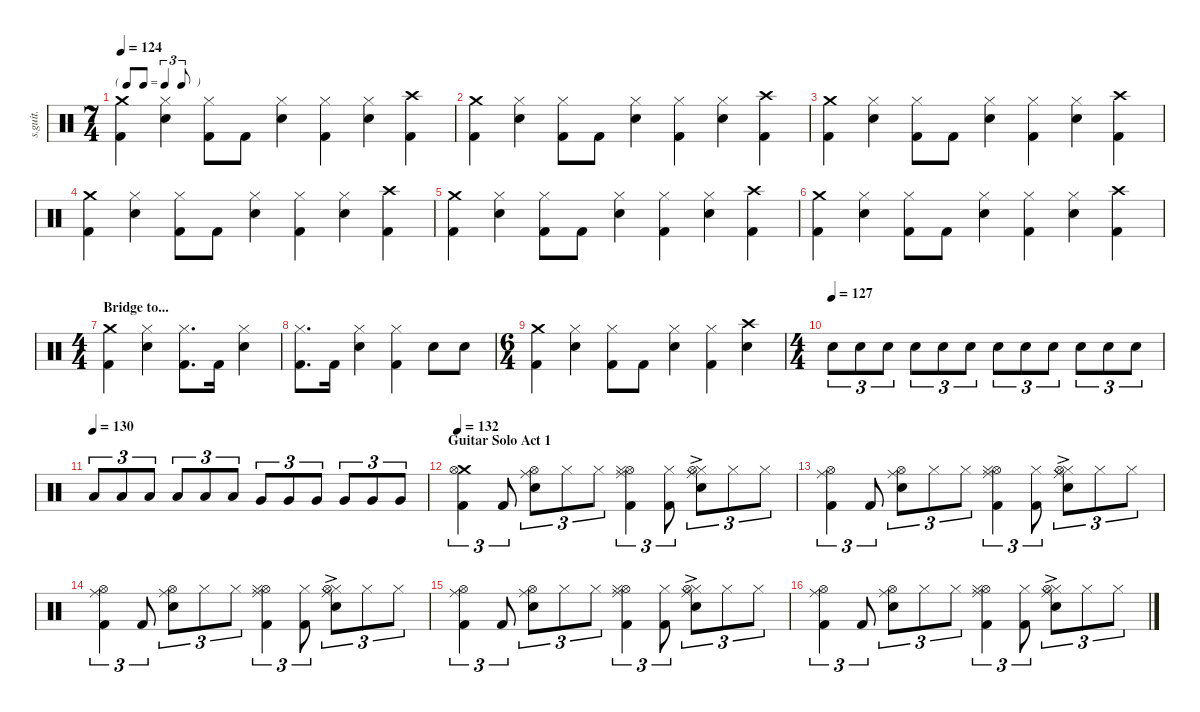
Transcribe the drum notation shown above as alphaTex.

\defaultSystemsLayout 4
\hideDynamics
\bracketExtendMode nobrackets
\track ("Nick Mason | Ludwig Drumkit | Drums" "s.guit.") {instrument percussion}
\staff {score}
\articulation defaults
\ts (7 4)
\tf triplet8th
\tempo 124
\clef neutral
\ks c
("Crash medium (hit)" "Kick (hit) 2").4{dy mf} ("Hi-Hat (closed)" "Snare (hit) 2").4 ("Hi-Hat (closed)" "Kick (hit) 2").8 "Kick (hit) 2".8 ("Hi-Hat (closed)" "Snare (hit) 2").4 ("Hi-Hat (closed)" "Kick (hit) 2").4 ("Hi-Hat (closed)" "Snare (hit) 2").4 ("Crash high (hit)" "Kick (hit) 2").4 |
("Crash medium (hit)" "Kick (hit) 2").4 ("Hi-Hat (closed)" "Snare (hit) 2").4 ("Hi-Hat (closed)" "Kick (hit) 2").8 "Kick (hit) 2".8 ("Hi-Hat (closed)" "Snare (hit) 2").4 ("Hi-Hat (closed)" "Kick (hit) 2").4 ("Hi-Hat (closed)" "Snare (hit) 2").4 ("Crash high (hit)" "Kick (hit) 2").4 |
("Crash medium (hit)" "Kick (hit) 2").4 ("Hi-Hat (closed)" "Snare (hit) 2").4 ("Hi-Hat (closed)" "Kick (hit) 2").8 "Kick (hit) 2".8 ("Hi-Hat (closed)" "Snare (hit) 2").4 ("Hi-Hat (closed)" "Kick (hit) 2").4 ("Hi-Hat (closed)" "Snare (hit) 2").4 ("Crash high (hit)" "Kick (hit) 2").4 |
("Crash medium (hit)" "Kick (hit) 2").4 ("Hi-Hat (closed)" "Snare (hit) 2").4 ("Hi-Hat (closed)" "Kick (hit) 2").8 "Kick (hit) 2".8 ("Hi-Hat (closed)" "Snare (hit) 2").4 ("Hi-Hat (closed)" "Kick (hit) 2").4 ("Hi-Hat (closed)" "Snare (hit) 2").4 ("Crash high (hit)" "Kick (hit) 2").4 |
("Crash medium (hit)" "Kick (hit) 2").4 ("Hi-Hat (closed)" "Snare (hit) 2").4 ("Hi-Hat (closed)" "Kick (hit) 2").8 "Kick (hit) 2".8 ("Hi-Hat (closed)" "Snare (hit) 2").4 ("Hi-Hat (closed)" "Kick (hit) 2").4 ("Hi-Hat (closed)" "Snare (hit) 2").4 ("Crash high (hit)" "Kick (hit) 2").4 |
("Crash medium (hit)" "Kick (hit) 2").4 ("Hi-Hat (closed)" "Snare (hit) 2").4 ("Hi-Hat (closed)" "Kick (hit) 2").8 "Kick (hit) 2".8 ("Hi-Hat (closed)" "Snare (hit) 2").4 ("Hi-Hat (closed)" "Kick (hit) 2").4 ("Hi-Hat (closed)" "Snare (hit) 2").4 ("Crash high (hit)" "Kick (hit) 2").4 |
\ts (4 4)
\beaming (8 2 2 2 2)
\section ("" "Bridge to...")
("Crash medium (hit)" "Kick (hit) 2").4 ("Hi-Hat (closed)" "Snare (hit) 2").4 ("Hi-Hat (closed)" "Kick (hit) 2").8{d} "Kick (hit) 2".16{dy f} ("Hi-Hat (closed)" "Snare (hit) 2").4{dy mf} |
("Hi-Hat (closed)" "Kick (hit) 2").8{d} "Kick (hit) 2".16{dy f} ("Hi-Hat (closed)" "Snare (hit) 2").4 ("Hi-Hat (closed)" "Kick (hit) 2").4 "Snare (hit) 2".8 "Snare (hit) 2".8 |
\ts (6 4)
\beaming (8 2 2 2 2)
("Crash medium (hit)" "Kick (hit) 2").4 ("Hi-Hat (closed)" "Snare (hit) 2").4{dy mf} ("Hi-Hat (closed)" "Kick (hit) 2").8 "Kick (hit) 2".8 ("Hi-Hat (closed)" "Snare (hit) 2").4 ("Hi-Hat (closed)" "Kick (hit) 2").4 ("Crash high (hit)" "Snare (hit) 2").4 |
\ts (4 4)
\beaming (8 2 2 2 2)
\tempo (127)
"Snare (hit) 2".8{tu (3 2) dy f} "Snare (hit) 2".8{tu (3 2)} "Snare (hit) 2".8{tu (3 2)} "Snare (hit) 2".8{tu (3 2)} "Snare (hit) 2".8{tu (3 2)} "Snare (hit) 2".8{tu (3 2)} "Snare (hit) 2".8{tu (3 2)} "Snare (hit) 2".8{tu (3 2)} "Snare (hit) 2".8{tu (3 2)} "Snare (hit) 2".8{tu (3 2)} "Snare (hit) 2".8{tu (3 2)} "Snare (hit) 2".8{tu (3 2)} |
\tempo (130)
"Low Tom (hit)".8{tu (3 2)} "Low Tom (hit)".8{tu (3 2)} "Low Tom (hit)".8{tu (3 2)} "Low Tom (hit)".8{tu (3 2)} "Low Tom (hit)".8{tu (3 2)} "Low Tom (hit)".8{tu (3 2)} "Very Low Tom (hit)".8{tu (3 2)} "Very Low Tom (hit)".8{tu (3 2)} "Very Low Tom (hit)".8{tu (3 2)} "Very Low Tom (hit)".8{tu (3 2)} "Very Low Tom (hit)".8{tu (3 2)} "Very Low Tom (hit)".8{tu (3 2)} |
\section ("" "Guitar Solo Act 1")
\tempo 132
("Crash medium (hit)" "Hi-Hat (open)" "Kick (hit) 2").4{tu (3 2) dy mf} "Kick (hit) 2".8{tu (3 2)} ("Hi-Hat (open)" "Ride (middle)" "Snare (hit) 2").8{tu (3 2)} "Hi-Hat (closed)".8{tu (3 2)} "Hi-Hat (closed)".8{tu (3 2)} ("Hi-Hat (open)" "Hi-Hat (closed)" "Ride (middle)" "Kick (hit) 2").4{tu (3 2)} ("Hi-Hat (closed)" "Kick (hit) 2").8{tu (3 2)} ("Hi-Hat (closed)"{ac} "Hi-Hat (open)" "Ride (middle)" "Snare (hit) 2").8{tu (3 2) dy f} "Hi-Hat (closed)".8{tu (3 2) dy mf} "Hi-Hat (closed)".8{tu (3 2)} |
("Hi-Hat (open)" "Ride (middle)" "Kick (hit) 2").4{tu (3 2)} "Kick (hit) 2".8{tu (3 2)} ("Hi-Hat (open)" "Ride (middle)" "Snare (hit) 2").8{tu (3 2)} "Hi-Hat (closed)".8{tu (3 2)} "Hi-Hat (closed)".8{tu (3 2)} ("Hi-Hat (open)" "Hi-Hat (closed)" "Ride (middle)" "Kick (hit) 2").4{tu (3 2)} ("Hi-Hat (closed)" "Kick (hit) 2").8{tu (3 2)} ("Hi-Hat (closed)"{ac} "Hi-Hat (open)" "Ride (middle)" "Snare (hit) 2").8{tu (3 2) dy f} "Hi-Hat (closed)".8{tu (3 2) dy mf} "Hi-Hat (closed)".8{tu (3 2)} |
("Hi-Hat (open)" "Ride (middle)" "Kick (hit) 2").4{tu (3 2)} "Kick (hit) 2".8{tu (3 2)} ("Hi-Hat (open)" "Ride (middle)" "Snare (hit) 2").8{tu (3 2)} "Hi-Hat (closed)".8{tu (3 2)} "Hi-Hat (closed)".8{tu (3 2)} ("Hi-Hat (open)" "Hi-Hat (closed)" "Ride (middle)" "Kick (hit) 2").4{tu (3 2)} ("Hi-Hat (closed)" "Kick (hit) 2").8{tu (3 2)} ("Hi-Hat (closed)"{ac} "Hi-Hat (open)" "Ride (middle)" "Snare (hit) 2").8{tu (3 2) dy f} "Hi-Hat (closed)".8{tu (3 2) dy mf} "Hi-Hat (closed)".8{tu (3 2)} |
("Hi-Hat (open)" "Ride (middle)" "Kick (hit) 2").4{tu (3 2)} "Kick (hit) 2".8{tu (3 2)} ("Hi-Hat (open)" "Ride (middle)" "Snare (hit) 2").8{tu (3 2)} "Hi-Hat (closed)".8{tu (3 2)} "Hi-Hat (closed)".8{tu (3 2)} ("Hi-Hat (open)" "Hi-Hat (closed)" "Ride (middle)" "Kick (hit) 2").4{tu (3 2)} ("Hi-Hat (closed)" "Kick (hit) 2").8{tu (3 2)} ("Hi-Hat (closed)"{ac} "Hi-Hat (open)" "Ride (middle)" "Snare (hit) 2").8{tu (3 2) dy f} "Hi-Hat (closed)".8{tu (3 2) dy mf} "Hi-Hat (closed)".8{tu (3 2)} |
("Hi-Hat (open)" "Ride (middle)" "Kick (hit) 2").4{tu (3 2)} "Kick (hit) 2".8{tu (3 2)} ("Hi-Hat (open)" "Ride (middle)" "Snare (hit) 2").8{tu (3 2)} "Hi-Hat (closed)".8{tu (3 2)} "Hi-Hat (closed)".8{tu (3 2)} ("Hi-Hat (open)" "Hi-Hat (closed)" "Ride (middle)" "Kick (hit) 2").4{tu (3 2)} ("Hi-Hat (closed)" "Kick (hit) 2").8{tu (3 2)} ("Hi-Hat (closed)"{ac} "Hi-Hat (open)" "Ride (middle)" "Snare (hit) 2").8{tu (3 2) dy f} "Hi-Hat (closed)".8{tu (3 2) dy mf} "Hi-Hat (closed)".8{tu (3 2)}
